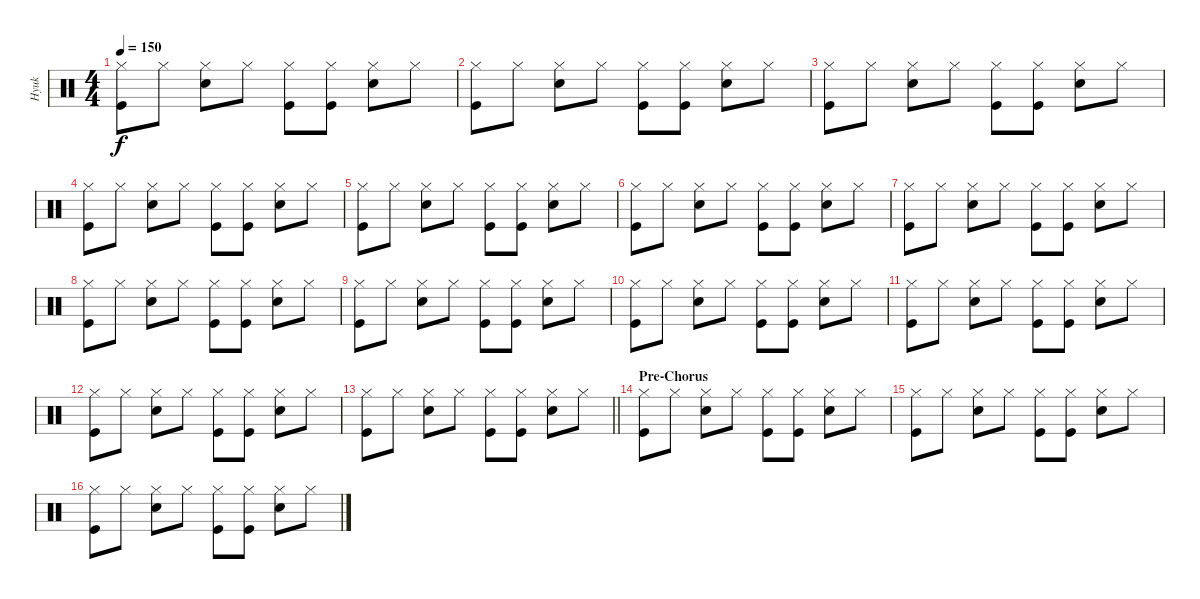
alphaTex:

\track ("Hyuk" "Hyuk") {instrument percussion}
\staff {score}
\articulation defaults
\ts (4 4)
\tempo 150
\clef neutral
\ks c
("Hi-Hat (closed)" "Kick (hit)").8{dy f} "Hi-Hat (closed)".8 ("Hi-Hat (closed)" "Snare (hit) 2").8 "Hi-Hat (closed)".8 ("Hi-Hat (closed)" "Kick (hit)").8 ("Hi-Hat (closed)" "Kick (hit)").8 ("Hi-Hat (closed)" "Snare (hit) 2").8 "Hi-Hat (closed)".8 |
("Hi-Hat (closed)" "Kick (hit)").8 "Hi-Hat (closed)".8 ("Hi-Hat (closed)" "Snare (hit) 2").8 "Hi-Hat (closed)".8 ("Hi-Hat (closed)" "Kick (hit)").8 ("Hi-Hat (closed)" "Kick (hit)").8 ("Hi-Hat (closed)" "Snare (hit) 2").8 "Hi-Hat (closed)".8 |
("Hi-Hat (closed)" "Kick (hit)").8 "Hi-Hat (closed)".8 ("Hi-Hat (closed)" "Snare (hit) 2").8 "Hi-Hat (closed)".8 ("Hi-Hat (closed)" "Kick (hit)").8 ("Hi-Hat (closed)" "Kick (hit)").8 ("Hi-Hat (closed)" "Snare (hit) 2").8 "Hi-Hat (closed)".8 |
("Hi-Hat (closed)" "Kick (hit)").8 "Hi-Hat (closed)".8 ("Hi-Hat (closed)" "Snare (hit) 2").8 "Hi-Hat (closed)".8 ("Hi-Hat (closed)" "Kick (hit)").8 ("Hi-Hat (closed)" "Kick (hit)").8 ("Hi-Hat (closed)" "Snare (hit) 2").8 "Hi-Hat (closed)".8 |
("Hi-Hat (closed)" "Kick (hit)").8 "Hi-Hat (closed)".8 ("Hi-Hat (closed)" "Snare (hit) 2").8 "Hi-Hat (closed)".8 ("Hi-Hat (closed)" "Kick (hit)").8 ("Hi-Hat (closed)" "Kick (hit)").8 ("Hi-Hat (closed)" "Snare (hit) 2").8 "Hi-Hat (closed)".8 |
("Hi-Hat (closed)" "Kick (hit)").8 "Hi-Hat (closed)".8 ("Hi-Hat (closed)" "Snare (hit) 2").8 "Hi-Hat (closed)".8 ("Hi-Hat (closed)" "Kick (hit)").8 ("Hi-Hat (closed)" "Kick (hit)").8 ("Hi-Hat (closed)" "Snare (hit) 2").8 "Hi-Hat (closed)".8 |
("Hi-Hat (closed)" "Kick (hit)").8 "Hi-Hat (closed)".8 ("Hi-Hat (closed)" "Snare (hit) 2").8 "Hi-Hat (closed)".8 ("Hi-Hat (closed)" "Kick (hit)").8 ("Hi-Hat (closed)" "Kick (hit)").8 ("Hi-Hat (closed)" "Snare (hit) 2").8 "Hi-Hat (closed)".8 |
("Hi-Hat (closed)" "Kick (hit)").8 "Hi-Hat (closed)".8 ("Hi-Hat (closed)" "Snare (hit) 2").8 "Hi-Hat (closed)".8 ("Hi-Hat (closed)" "Kick (hit)").8 ("Hi-Hat (closed)" "Kick (hit)").8 ("Hi-Hat (closed)" "Snare (hit) 2").8 "Hi-Hat (closed)".8 |
("Hi-Hat (closed)" "Kick (hit)").8 "Hi-Hat (closed)".8 ("Hi-Hat (closed)" "Snare (hit) 2").8 "Hi-Hat (closed)".8 ("Hi-Hat (closed)" "Kick (hit)").8 ("Hi-Hat (closed)" "Kick (hit)").8 ("Hi-Hat (closed)" "Snare (hit) 2").8 "Hi-Hat (closed)".8 |
("Hi-Hat (closed)" "Kick (hit)").8 "Hi-Hat (closed)".8 ("Hi-Hat (closed)" "Snare (hit) 2").8 "Hi-Hat (closed)".8 ("Hi-Hat (closed)" "Kick (hit)").8 ("Hi-Hat (closed)" "Kick (hit)").8 ("Hi-Hat (closed)" "Snare (hit) 2").8 "Hi-Hat (closed)".8 |
("Hi-Hat (closed)" "Kick (hit)").8 "Hi-Hat (closed)".8 ("Hi-Hat (closed)" "Snare (hit) 2").8 "Hi-Hat (closed)".8 ("Hi-Hat (closed)" "Kick (hit)").8 ("Hi-Hat (closed)" "Kick (hit)").8 ("Hi-Hat (closed)" "Snare (hit) 2").8 "Hi-Hat (closed)".8 |
("Hi-Hat (closed)" "Kick (hit)").8 "Hi-Hat (closed)".8 ("Hi-Hat (closed)" "Snare (hit) 2").8 "Hi-Hat (closed)".8 ("Hi-Hat (closed)" "Kick (hit)").8 ("Hi-Hat (closed)" "Kick (hit)").8 ("Hi-Hat (closed)" "Snare (hit) 2").8 "Hi-Hat (closed)".8 |
\barLineRight lightlight
("Hi-Hat (closed)" "Kick (hit)").8 "Hi-Hat (closed)".8 ("Hi-Hat (closed)" "Snare (hit) 2").8 "Hi-Hat (closed)".8 ("Hi-Hat (closed)" "Kick (hit)").8 ("Hi-Hat (closed)" "Kick (hit)").8 ("Hi-Hat (closed)" "Snare (hit) 2").8 "Hi-Hat (closed)".8 |
\section ("" "Pre-Chorus")
("Hi-Hat (closed)" "Kick (hit)").8 "Hi-Hat (closed)".8 ("Hi-Hat (closed)" "Snare (hit) 2").8 "Hi-Hat (closed)".8 ("Hi-Hat (closed)" "Kick (hit)").8 ("Hi-Hat (closed)" "Kick (hit)").8 ("Hi-Hat (closed)" "Snare (hit) 2").8 "Hi-Hat (closed)".8 |
("Hi-Hat (closed)" "Kick (hit)").8 "Hi-Hat (closed)".8 ("Hi-Hat (closed)" "Snare (hit) 2").8 "Hi-Hat (closed)".8 ("Hi-Hat (closed)" "Kick (hit)").8 ("Hi-Hat (closed)" "Kick (hit)").8 ("Hi-Hat (closed)" "Snare (hit) 2").8 "Hi-Hat (closed)".8 |
("Hi-Hat (closed)" "Kick (hit)").8 "Hi-Hat (closed)".8 ("Hi-Hat (closed)" "Snare (hit) 2").8 "Hi-Hat (closed)".8 ("Hi-Hat (closed)" "Kick (hit)").8 ("Hi-Hat (closed)" "Kick (hit)").8 ("Hi-Hat (closed)" "Snare (hit) 2").8 "Hi-Hat (closed)".8
